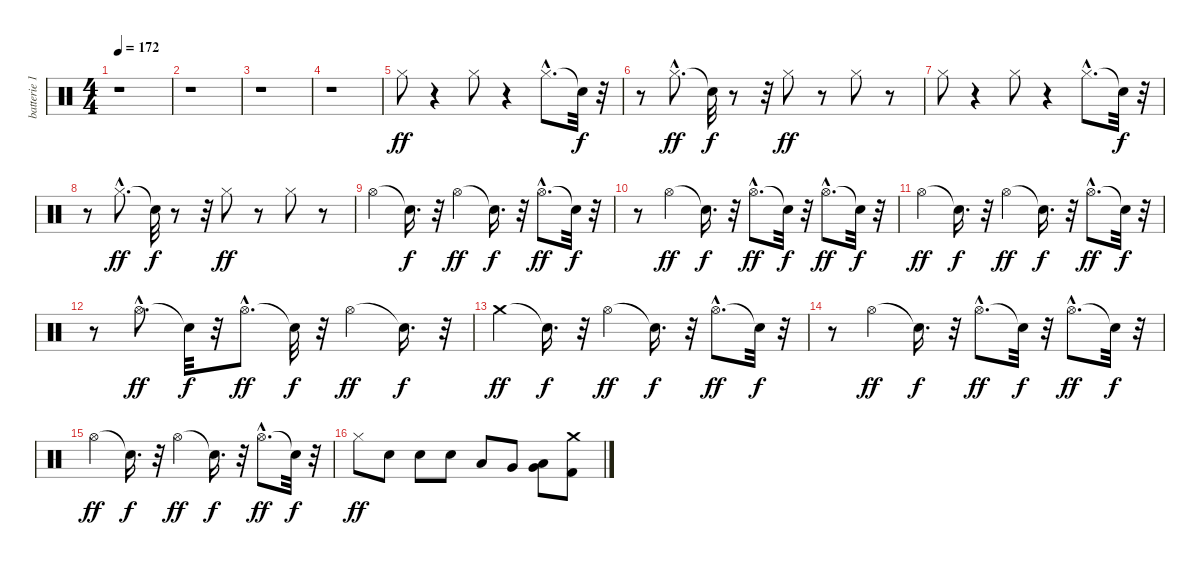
\track ("batterie 1" "batterie 1") {instrument percussion}
\staff {score}
\articulation defaults
\ts (4 4)
\tempo 172
\clef neutral
\ks c
r.1{dy ff} |
r.1 |
r.1 |
r.1 |
"Hi-Hat (closed)".8 r.4 "Hi-Hat (closed)".8 r.4 "Hi-Hat (closed)"{hac}.8{d} "Snare (hit)"{t}.32{dy f} r.32 |
r.8 "Hi-Hat (closed)"{hac}.8{d dy ff} "Snare (hit)"{t}.32{dy f} r.8 r.32 "Hi-Hat (closed)".8{dy ff} r.8 "Hi-Hat (closed)".8 r.8 |
"Hi-Hat (closed)".8 r.4 "Hi-Hat (closed)".8 r.4 "Hi-Hat (closed)"{hac}.8{d} "Snare (hit)"{t}.32{dy f} r.32 |
r.8 "Hi-Hat (closed)"{hac}.8{d dy ff} "Snare (hit)"{t}.32{dy f} r.8 r.32 "Hi-Hat (closed)".8{dy ff} r.8 "Hi-Hat (closed)".8 r.8 |
"Hi-Hat (open)".4 "Snare (hit)"{t}.16{d dy f} r.32 "Hi-Hat (open)".4{dy ff} "Snare (hit)"{t}.16{d dy f} r.32 "Hi-Hat (open)"{hac}.8{d dy ff} "Snare (hit)"{t}.32{dy f} r.32 |
r.8 "Hi-Hat (open)".4{dy ff} "Snare (hit)"{t}.16{d dy f} r.32 "Hi-Hat (open)"{hac}.8{d dy ff} "Snare (hit)"{t}.32{dy f} r.32 "Hi-Hat (open)"{hac}.8{d dy ff} "Snare (hit)"{t}.32{dy f} r.32 |
"Hi-Hat (open)".4{dy ff} "Snare (hit)"{t}.16{d dy f} r.32 "Hi-Hat (open)".4{dy ff} "Snare (hit)"{t}.16{d dy f} r.32 "Hi-Hat (open)"{hac}.8{d dy ff} "Snare (hit)"{t}.32{dy f} r.32 |
r.8 "Hi-Hat (open)"{hac}.8{d dy ff} "Snare (hit)"{t}.32{dy f} r.32 "Hi-Hat (open)"{hac}.8{d dy ff} "Snare (hit)"{t}.32{dy f} r.32 "Hi-Hat (open)".4{dy ff} "Snare (hit)"{t}.16{d dy f} r.32 |
"Crash medium (hit)".4{dy ff} "Snare (hit)"{t}.16{d dy f} r.32 "Hi-Hat (open)".4{dy ff} "Snare (hit)"{t}.16{d dy f} r.32 "Hi-Hat (open)"{hac}.8{d dy ff} "Snare (hit)"{t}.32{dy f} r.32 |
r.8 "Hi-Hat (open)".4{dy ff} "Snare (hit)"{t}.16{d dy f} r.32 "Hi-Hat (open)"{hac}.8{d dy ff} "Snare (hit)"{t}.32{dy f} r.32 "Hi-Hat (open)"{hac}.8{d dy ff} "Snare (hit)"{t}.32{dy f} r.32 |
"Hi-Hat (open)".4{dy ff} "Snare (hit)"{t}.16{d dy f} r.32 "Hi-Hat (open)".4{dy ff} "Snare (hit)"{t}.16{d dy f} r.32 "Hi-Hat (open)"{hac}.8{d dy ff} "Snare (hit)"{t}.32{dy f} r.32 |
"Hi-Hat (closed)".8{dy ff} "Electric Snare (hit)".8 "Electric Snare (hit)".8 "Electric Snare (hit)".8 "Low Tom (hit)".8 "Very Low Tom (hit)".8 ("Low Floor Tom (hit)" "Very Low Tom (hit)").8 ("Kick (hit) 2" "Crash medium (hit)").8
